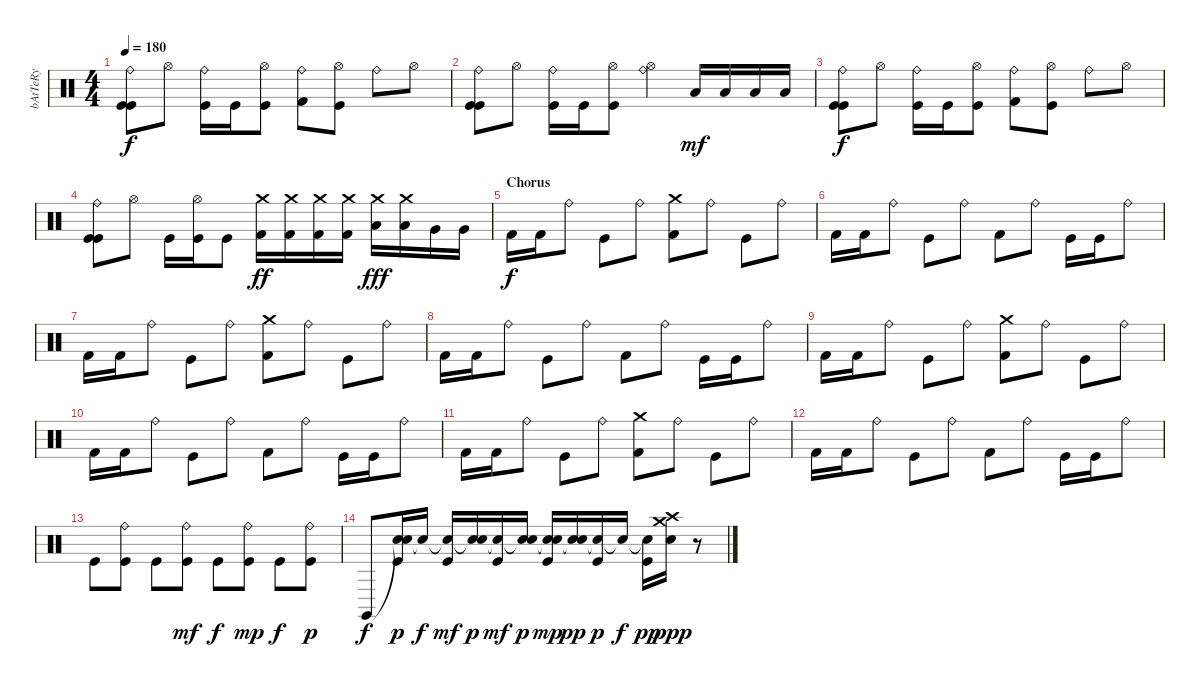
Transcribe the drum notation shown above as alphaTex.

\track ("bAtTeRy" "bAtTeRy") {instrument percussion}
\staff {score}
\articulation defaults
\ts (4 4)
\tempo 180
\clef neutral
\ks c
("Ride (bell)" "Kick (hit)" "Kick (hit)").8{dy f} "Hi-Hat (open)".8 ("Ride (bell)" "Kick (hit)").16 "Kick (hit)".16 ("Hi-Hat (open)" "Kick (hit)").8 ("Ride (bell)" "Kick (hit) 2").8 ("Hi-Hat (open)" "Kick (hit)").8 "Ride (bell)".8 "Hi-Hat (open)".8 |
("Ride (bell)" "Kick (hit)" "Kick (hit)").8 "Hi-Hat (open)".8 ("Ride (bell)" "Kick (hit)").16 "Kick (hit)".16 ("Hi-Hat (open)" "Kick (hit)").8 ("Hi-Hat (open)" "Ride (bell)").4 "Low Tom (hit)".16{dy mf} "Low Tom (hit)".16 "Low Tom (hit)".16 "Low Tom (hit)".16 |
("Ride (bell)" "Kick (hit)" "Kick (hit)").8{dy f} "Hi-Hat (open)".8 ("Ride (bell)" "Kick (hit)").16 "Kick (hit)".16 ("Hi-Hat (open)" "Kick (hit)").8 ("Ride (bell)" "Kick (hit) 2").8 ("Hi-Hat (open)" "Kick (hit)").8 "Ride (bell)".8 "Hi-Hat (open)".8 |
("Ride (bell)" "Kick (hit)" "Kick (hit)").8 "Hi-Hat (open)".8 "Kick (hit)".16 ("Hi-Hat (open)" "Kick (hit)").16 "Kick (hit)".8 ("Crash medium (hit)" "Kick (hit) 2").16{dy ff} ("Crash medium (hit)" "Kick (hit) 2").16 ("Crash medium (hit)" "Kick (hit) 2").16 ("Crash medium (hit)" "Kick (hit) 2").16 ("Crash medium (hit)" "Low Tom (hit)").16{dy fff} ("Crash medium (hit)" "Low Tom (hit)").16 "Very Low Tom (hit)".16 "Very Low Tom (hit)".16 |
\section ("" "Chorus")
"Kick (hit) 2".16{dy f} "Kick (hit) 2".16 "Ride (bell)".8 "Kick (hit)".8 "Ride (bell)".8 ("Crash medium (hit)" "Kick (hit) 2").8 "Ride (bell)".8 "Kick (hit)".8 "Ride (bell)".8 |
"Kick (hit) 2".16 "Kick (hit) 2".16 "Ride (bell)".8 "Kick (hit)".8 "Ride (bell)".8 "Kick (hit) 2".8 "Ride (bell)".8 "Kick (hit)".16 "Kick (hit)".16 "Ride (bell)".8 |
"Kick (hit) 2".16 "Kick (hit) 2".16 "Ride (bell)".8 "Kick (hit)".8 "Ride (bell)".8 ("Crash medium (hit)" "Kick (hit) 2").8 "Ride (bell)".8 "Kick (hit)".8 "Ride (bell)".8 |
"Kick (hit) 2".16 "Kick (hit) 2".16 "Ride (bell)".8 "Kick (hit)".8 "Ride (bell)".8 "Kick (hit) 2".8 "Ride (bell)".8 "Kick (hit)".16 "Kick (hit)".16 "Ride (bell)".8 |
"Kick (hit) 2".16 "Kick (hit) 2".16 "Ride (bell)".8 "Kick (hit)".8 "Ride (bell)".8 ("Crash medium (hit)" "Kick (hit) 2").8 "Ride (bell)".8 "Kick (hit)".8 "Ride (bell)".8 |
"Kick (hit) 2".16 "Kick (hit) 2".16 "Ride (bell)".8 "Kick (hit)".8 "Ride (bell)".8 "Kick (hit) 2".8 "Ride (bell)".8 "Kick (hit)".16 "Kick (hit)".16 "Ride (bell)".8 |
"Kick (hit) 2".16 "Kick (hit) 2".16 "Ride (bell)".8 "Kick (hit)".8 "Ride (bell)".8 ("Crash medium (hit)" "Kick (hit) 2").8 "Ride (bell)".8 "Kick (hit)".8 "Ride (bell)".8 |
"Kick (hit) 2".16 "Kick (hit) 2".16 "Ride (bell)".8 "Kick (hit)".8 "Ride (bell)".8 "Kick (hit) 2".8 "Ride (bell)".8 "Kick (hit)".16 "Kick (hit)".16 "Ride (bell)".8 |
"Kick (hit)".8 ("Ride (bell)" "Kick (hit)").8 "Kick (hit)".8 ("Ride (bell)" "Kick (hit)").8{dy mf} "Kick (hit)".8{dy f} ("Ride (bell)" "Kick (hit)").8{dy mp} "Kick (hit)".8{dy f} ("Ride (bell)" "Kick (hit)").8{dy p} |
"Claves (hit)".8{dy f} ("Snare (hit)"{t} "Electric Snare (hit)" "Kick (hit)").16{dy p} "Snare (hit)"{t}.16{dy f} ("Snare (hit)"{t} "Kick (hit)").16{dy mf} ("Snare (hit)"{t} "Electric Snare (hit)").16{dy p} ("Snare (hit)"{t} "Kick (hit)").16{dy mf} ("Snare (hit)"{t} "Electric Snare (hit)").16{dy p} ("Snare (hit)"{t} "Electric Snare (hit)" "Kick (hit)").16{dy mp} ("Snare (hit)"{t} "Electric Snare (hit)").16{dy pp} ("Snare (hit)"{t} "Kick (hit)").16{dy p} "Snare (hit)"{t}.16{dy f} ("Snare (hit)"{t} "Kick (hit)").16{dy pp} ("Snare (hit)"{t} "Crash medium (hit)" "Crash high (hit)").16{dy ppp} r.8
